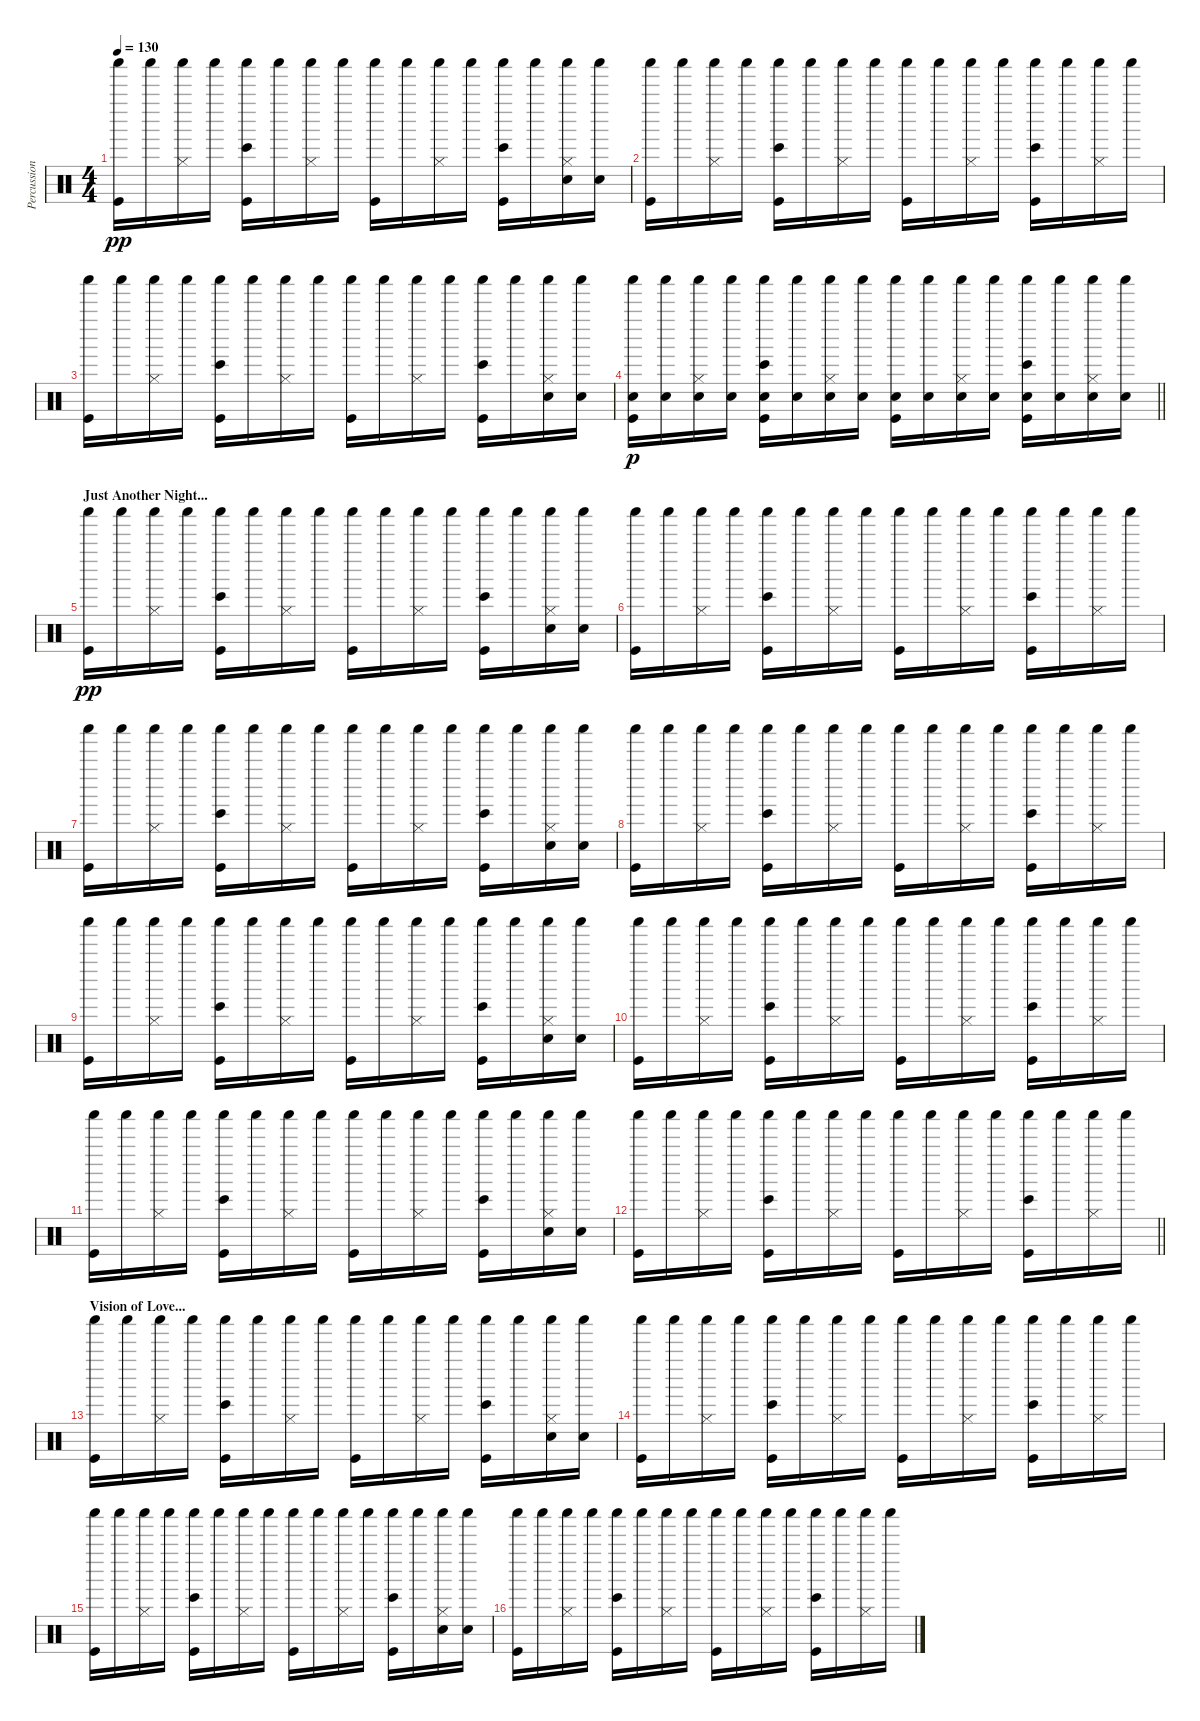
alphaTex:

\track ("Percussion" "Percussion") {instrument percussion}
\staff {score}
\articulation defaults
\ts (4 4)
\tempo 130
\clef neutral
\ks c
("Kick (hit)" "Shaker (hit)").16{dy pp} "Shaker (hit)".16 ("Hi-Hat (closed)" "Shaker (hit)").16 "Shaker (hit)".16 ("Kick (hit)" "Bongo High (hit)" "Shaker (hit)").16 "Shaker (hit)".16 ("Hi-Hat (closed)" "Shaker (hit)").16 "Shaker (hit)".16 ("Kick (hit)" "Shaker (hit)").16 "Shaker (hit)".16 ("Hi-Hat (closed)" "Shaker (hit)").16 "Shaker (hit)".16 ("Kick (hit)" "Bongo High (hit)" "Shaker (hit)").16 "Shaker (hit)".16 ("Electric Snare (hit)" "Hi-Hat (closed)" "Shaker (hit)").16 ("Electric Snare (hit)" "Shaker (hit)").16 |
("Kick (hit)" "Shaker (hit)").16 "Shaker (hit)".16 ("Hi-Hat (closed)" "Shaker (hit)").16 "Shaker (hit)".16 ("Kick (hit)" "Bongo High (hit)" "Shaker (hit)").16 "Shaker (hit)".16 ("Hi-Hat (closed)" "Shaker (hit)").16 "Shaker (hit)".16 ("Kick (hit)" "Shaker (hit)").16 "Shaker (hit)".16 ("Hi-Hat (closed)" "Shaker (hit)").16 "Shaker (hit)".16 ("Kick (hit)" "Bongo High (hit)" "Shaker (hit)").16 "Shaker (hit)".16 ("Hi-Hat (closed)" "Shaker (hit)").16 "Shaker (hit)".16 |
("Kick (hit)" "Shaker (hit)").16 "Shaker (hit)".16 ("Hi-Hat (closed)" "Shaker (hit)").16 "Shaker (hit)".16 ("Kick (hit)" "Bongo High (hit)" "Shaker (hit)").16 "Shaker (hit)".16 ("Hi-Hat (closed)" "Shaker (hit)").16 "Shaker (hit)".16 ("Kick (hit)" "Shaker (hit)").16 "Shaker (hit)".16 ("Hi-Hat (closed)" "Shaker (hit)").16 "Shaker (hit)".16 ("Kick (hit)" "Bongo High (hit)" "Shaker (hit)").16 "Shaker (hit)".16 ("Electric Snare (hit)" "Hi-Hat (closed)" "Shaker (hit)").16 ("Electric Snare (hit)" "Shaker (hit)").16 |
\barLineRight lightlight
("Kick (hit)" "Electric Snare (hit)" "Shaker (hit)").16{dy p} ("Electric Snare (hit)" "Shaker (hit)").16 ("Electric Snare (hit)" "Hi-Hat (closed)" "Shaker (hit)").16 ("Electric Snare (hit)" "Shaker (hit)").16 ("Kick (hit)" "Bongo High (hit)" "Electric Snare (hit)" "Shaker (hit)").16 ("Electric Snare (hit)" "Shaker (hit)").16 ("Electric Snare (hit)" "Hi-Hat (closed)" "Shaker (hit)").16 ("Electric Snare (hit)" "Shaker (hit)").16 ("Kick (hit)" "Electric Snare (hit)" "Shaker (hit)").16 ("Electric Snare (hit)" "Shaker (hit)").16 ("Electric Snare (hit)" "Hi-Hat (closed)" "Shaker (hit)").16 ("Electric Snare (hit)" "Shaker (hit)").16 ("Kick (hit)" "Bongo High (hit)" "Electric Snare (hit)" "Shaker (hit)").16 ("Electric Snare (hit)" "Shaker (hit)").16 ("Electric Snare (hit)" "Hi-Hat (closed)" "Shaker (hit)").16 ("Electric Snare (hit)" "Shaker (hit)").16 |
\section ("" "Just Another Night...")
("Kick (hit)" "Shaker (hit)").16{dy pp} "Shaker (hit)".16 ("Hi-Hat (closed)" "Shaker (hit)").16 "Shaker (hit)".16 ("Kick (hit)" "Bongo High (hit)" "Shaker (hit)").16 "Shaker (hit)".16 ("Hi-Hat (closed)" "Shaker (hit)").16 "Shaker (hit)".16 ("Kick (hit)" "Shaker (hit)").16 "Shaker (hit)".16 ("Hi-Hat (closed)" "Shaker (hit)").16 "Shaker (hit)".16 ("Kick (hit)" "Bongo High (hit)" "Shaker (hit)").16 "Shaker (hit)".16 ("Electric Snare (hit)" "Hi-Hat (closed)" "Shaker (hit)").16 ("Electric Snare (hit)" "Shaker (hit)").16 |
("Kick (hit)" "Shaker (hit)").16 "Shaker (hit)".16 ("Hi-Hat (closed)" "Shaker (hit)").16 "Shaker (hit)".16 ("Kick (hit)" "Bongo High (hit)" "Shaker (hit)").16 "Shaker (hit)".16 ("Hi-Hat (closed)" "Shaker (hit)").16 "Shaker (hit)".16 ("Kick (hit)" "Shaker (hit)").16 "Shaker (hit)".16 ("Hi-Hat (closed)" "Shaker (hit)").16 "Shaker (hit)".16 ("Kick (hit)" "Bongo High (hit)" "Shaker (hit)").16 "Shaker (hit)".16 ("Hi-Hat (closed)" "Shaker (hit)").16 "Shaker (hit)".16 |
("Kick (hit)" "Shaker (hit)").16 "Shaker (hit)".16 ("Hi-Hat (closed)" "Shaker (hit)").16 "Shaker (hit)".16 ("Kick (hit)" "Bongo High (hit)" "Shaker (hit)").16 "Shaker (hit)".16 ("Hi-Hat (closed)" "Shaker (hit)").16 "Shaker (hit)".16 ("Kick (hit)" "Shaker (hit)").16 "Shaker (hit)".16 ("Hi-Hat (closed)" "Shaker (hit)").16 "Shaker (hit)".16 ("Kick (hit)" "Bongo High (hit)" "Shaker (hit)").16 "Shaker (hit)".16 ("Electric Snare (hit)" "Hi-Hat (closed)" "Shaker (hit)").16 ("Electric Snare (hit)" "Shaker (hit)").16 |
("Kick (hit)" "Shaker (hit)").16 "Shaker (hit)".16 ("Hi-Hat (closed)" "Shaker (hit)").16 "Shaker (hit)".16 ("Kick (hit)" "Bongo High (hit)" "Shaker (hit)").16 "Shaker (hit)".16 ("Hi-Hat (closed)" "Shaker (hit)").16 "Shaker (hit)".16 ("Kick (hit)" "Shaker (hit)").16 "Shaker (hit)".16 ("Hi-Hat (closed)" "Shaker (hit)").16 "Shaker (hit)".16 ("Kick (hit)" "Bongo High (hit)" "Shaker (hit)").16 "Shaker (hit)".16 ("Hi-Hat (closed)" "Shaker (hit)").16 "Shaker (hit)".16 |
("Kick (hit)" "Shaker (hit)").16 "Shaker (hit)".16 ("Hi-Hat (closed)" "Shaker (hit)").16 "Shaker (hit)".16 ("Kick (hit)" "Bongo High (hit)" "Shaker (hit)").16 "Shaker (hit)".16 ("Hi-Hat (closed)" "Shaker (hit)").16 "Shaker (hit)".16 ("Kick (hit)" "Shaker (hit)").16 "Shaker (hit)".16 ("Hi-Hat (closed)" "Shaker (hit)").16 "Shaker (hit)".16 ("Kick (hit)" "Bongo High (hit)" "Shaker (hit)").16 "Shaker (hit)".16 ("Electric Snare (hit)" "Hi-Hat (closed)" "Shaker (hit)").16 ("Electric Snare (hit)" "Shaker (hit)").16 |
("Kick (hit)" "Shaker (hit)").16 "Shaker (hit)".16 ("Hi-Hat (closed)" "Shaker (hit)").16 "Shaker (hit)".16 ("Kick (hit)" "Bongo High (hit)" "Shaker (hit)").16 "Shaker (hit)".16 ("Hi-Hat (closed)" "Shaker (hit)").16 "Shaker (hit)".16 ("Kick (hit)" "Shaker (hit)").16 "Shaker (hit)".16 ("Hi-Hat (closed)" "Shaker (hit)").16 "Shaker (hit)".16 ("Kick (hit)" "Bongo High (hit)" "Shaker (hit)").16 "Shaker (hit)".16 ("Hi-Hat (closed)" "Shaker (hit)").16 "Shaker (hit)".16 |
("Kick (hit)" "Shaker (hit)").16 "Shaker (hit)".16 ("Hi-Hat (closed)" "Shaker (hit)").16 "Shaker (hit)".16 ("Kick (hit)" "Bongo High (hit)" "Shaker (hit)").16 "Shaker (hit)".16 ("Hi-Hat (closed)" "Shaker (hit)").16 "Shaker (hit)".16 ("Kick (hit)" "Shaker (hit)").16 "Shaker (hit)".16 ("Hi-Hat (closed)" "Shaker (hit)").16 "Shaker (hit)".16 ("Kick (hit)" "Bongo High (hit)" "Shaker (hit)").16 "Shaker (hit)".16 ("Electric Snare (hit)" "Hi-Hat (closed)" "Shaker (hit)").16 ("Electric Snare (hit)" "Shaker (hit)").16 |
\barLineRight lightlight
("Kick (hit)" "Shaker (hit)").16 "Shaker (hit)".16 ("Hi-Hat (closed)" "Shaker (hit)").16 "Shaker (hit)".16 ("Kick (hit)" "Bongo High (hit)" "Shaker (hit)").16 "Shaker (hit)".16 ("Hi-Hat (closed)" "Shaker (hit)").16 "Shaker (hit)".16 ("Kick (hit)" "Shaker (hit)").16 "Shaker (hit)".16 ("Hi-Hat (closed)" "Shaker (hit)").16 "Shaker (hit)".16 ("Kick (hit)" "Bongo High (hit)" "Shaker (hit)").16 "Shaker (hit)".16 ("Hi-Hat (closed)" "Shaker (hit)").16 "Shaker (hit)".16 |
\section ("" "Vision of Love...")
("Kick (hit)" "Shaker (hit)").16 "Shaker (hit)".16 ("Hi-Hat (closed)" "Shaker (hit)").16 "Shaker (hit)".16 ("Kick (hit)" "Bongo High (hit)" "Shaker (hit)").16 "Shaker (hit)".16 ("Hi-Hat (closed)" "Shaker (hit)").16 "Shaker (hit)".16 ("Kick (hit)" "Shaker (hit)").16 "Shaker (hit)".16 ("Hi-Hat (closed)" "Shaker (hit)").16 "Shaker (hit)".16 ("Kick (hit)" "Bongo High (hit)" "Shaker (hit)").16 "Shaker (hit)".16 ("Electric Snare (hit)" "Hi-Hat (closed)" "Shaker (hit)").16 ("Electric Snare (hit)" "Shaker (hit)").16 |
("Kick (hit)" "Shaker (hit)").16 "Shaker (hit)".16 ("Hi-Hat (closed)" "Shaker (hit)").16 "Shaker (hit)".16 ("Kick (hit)" "Bongo High (hit)" "Shaker (hit)").16 "Shaker (hit)".16 ("Hi-Hat (closed)" "Shaker (hit)").16 "Shaker (hit)".16 ("Kick (hit)" "Shaker (hit)").16 "Shaker (hit)".16 ("Hi-Hat (closed)" "Shaker (hit)").16 "Shaker (hit)".16 ("Kick (hit)" "Bongo High (hit)" "Shaker (hit)").16 "Shaker (hit)".16 ("Hi-Hat (closed)" "Shaker (hit)").16 "Shaker (hit)".16 |
("Kick (hit)" "Shaker (hit)").16 "Shaker (hit)".16 ("Hi-Hat (closed)" "Shaker (hit)").16 "Shaker (hit)".16 ("Kick (hit)" "Bongo High (hit)" "Shaker (hit)").16 "Shaker (hit)".16 ("Hi-Hat (closed)" "Shaker (hit)").16 "Shaker (hit)".16 ("Kick (hit)" "Shaker (hit)").16 "Shaker (hit)".16 ("Hi-Hat (closed)" "Shaker (hit)").16 "Shaker (hit)".16 ("Kick (hit)" "Bongo High (hit)" "Shaker (hit)").16 "Shaker (hit)".16 ("Electric Snare (hit)" "Hi-Hat (closed)" "Shaker (hit)").16 ("Electric Snare (hit)" "Shaker (hit)").16 |
("Kick (hit)" "Shaker (hit)").16 "Shaker (hit)".16 ("Hi-Hat (closed)" "Shaker (hit)").16 "Shaker (hit)".16 ("Kick (hit)" "Bongo High (hit)" "Shaker (hit)").16 "Shaker (hit)".16 ("Hi-Hat (closed)" "Shaker (hit)").16 "Shaker (hit)".16 ("Kick (hit)" "Shaker (hit)").16 "Shaker (hit)".16 ("Hi-Hat (closed)" "Shaker (hit)").16 "Shaker (hit)".16 ("Kick (hit)" "Bongo High (hit)" "Shaker (hit)").16 "Shaker (hit)".16 ("Hi-Hat (closed)" "Shaker (hit)").16 "Shaker (hit)".16
